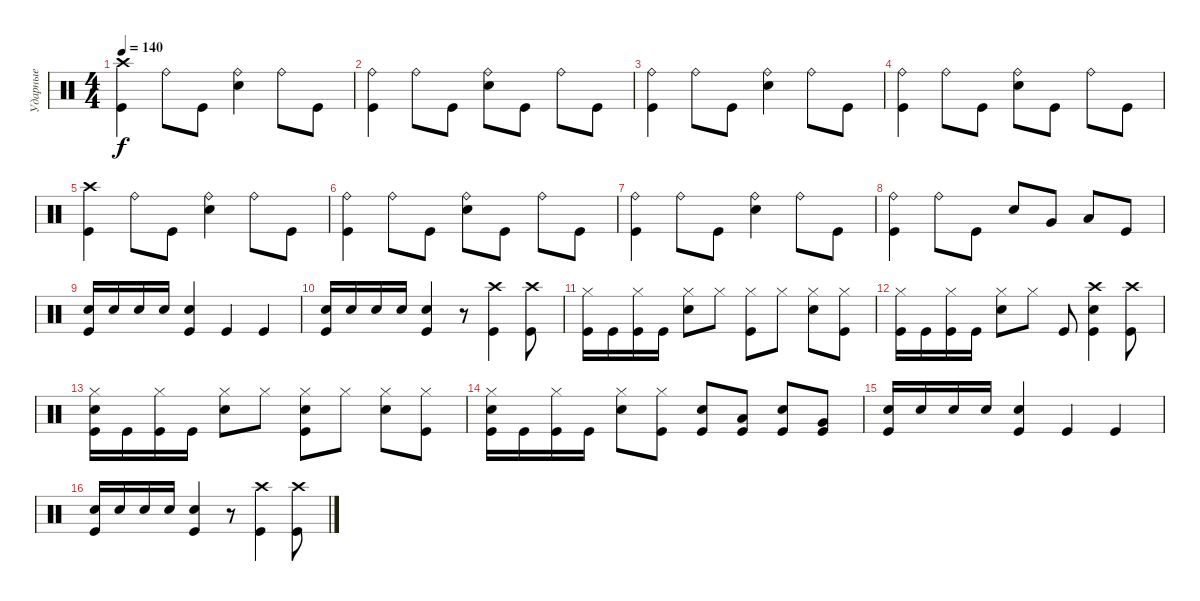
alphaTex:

\track ("Ударные" "Ударные") {instrument percussion}
\staff {score}
\articulation defaults
\ts (4 4)
\tempo 140
\clef neutral
\ks c
("Crash high (hit)" "Kick (hit)").4{dy f} "Ride (bell)".8 "Kick (hit)".8 ("Ride (bell)" "Electric Snare (hit)").4 "Ride (bell)".8 "Kick (hit)".8 |
("Ride (bell)" "Kick (hit)").4 "Ride (bell)".8 "Kick (hit)".8 ("Ride (bell)" "Electric Snare (hit)").8 "Kick (hit)".8 "Ride (bell)".8 "Kick (hit)".8 |
("Ride (bell)" "Kick (hit)").4 "Ride (bell)".8 "Kick (hit)".8 ("Ride (bell)" "Electric Snare (hit)").4 "Ride (bell)".8 "Kick (hit)".8 |
("Ride (bell)" "Kick (hit)").4 "Ride (bell)".8 "Kick (hit)".8 ("Ride (bell)" "Electric Snare (hit)").8 "Kick (hit)".8 "Ride (bell)".8 "Kick (hit)".8 |
("Crash high (hit)" "Kick (hit)").4 "Ride (bell)".8 "Kick (hit)".8 ("Ride (bell)" "Electric Snare (hit)").4 "Ride (bell)".8 "Kick (hit)".8 |
("Ride (bell)" "Kick (hit)").4 "Ride (bell)".8 "Kick (hit)".8 ("Ride (bell)" "Electric Snare (hit)").8 "Kick (hit)".8 "Ride (bell)".8 "Kick (hit)".8 |
("Ride (bell)" "Kick (hit)").4 "Ride (bell)".8 "Kick (hit)".8 ("Ride (bell)" "Electric Snare (hit)").4 "Ride (bell)".8 "Kick (hit)".8 |
("Ride (bell)" "Kick (hit)").4 "Ride (bell)".8 "Kick (hit)".8 "Electric Snare (hit)".8 "Very Low Tom (hit)".8 "Low Tom (hit)".8 "Kick (hit)".8 |
("Electric Snare (hit)" "Kick (hit)").16 "Electric Snare (hit)".16 "Electric Snare (hit)".16 "Electric Snare (hit)".16 ("Electric Snare (hit)" "Kick (hit)").4 "Kick (hit)".4 "Kick (hit)".4 |
("Electric Snare (hit)" "Kick (hit)").16 "Electric Snare (hit)".16 "Electric Snare (hit)".16 "Electric Snare (hit)".16 ("Electric Snare (hit)" "Kick (hit)").4 r.8 ("Crash high (hit)" "Kick (hit)").4 ("Crash high (hit)" "Kick (hit)").8 |
("Hi-Hat (closed)" "Kick (hit)").16 "Kick (hit)".16 ("Hi-Hat (closed)" "Kick (hit)").16 "Kick (hit)".16 ("Hi-Hat (closed)" "Electric Snare (hit)").8 "Hi-Hat (closed)".8 ("Hi-Hat (closed)" "Kick (hit)").8 "Hi-Hat (closed)".8 ("Hi-Hat (closed)" "Electric Snare (hit)").8 ("Hi-Hat (closed)" "Kick (hit)").8 |
("Hi-Hat (closed)" "Kick (hit)").16 "Kick (hit)".16 ("Hi-Hat (closed)" "Kick (hit)").16 "Kick (hit)".16 ("Hi-Hat (closed)" "Electric Snare (hit)").8 "Hi-Hat (closed)".8 "Kick (hit)".8 ("Crash high (hit)" "Electric Snare (hit)" "Kick (hit)").4 ("Crash high (hit)" "Kick (hit)").8 |
("Hi-Hat (closed)" "Electric Snare (hit)" "Kick (hit)").16 "Kick (hit)".16 ("Hi-Hat (closed)" "Kick (hit)").16 "Kick (hit)".16 ("Hi-Hat (closed)" "Electric Snare (hit)").8 "Hi-Hat (closed)".8 ("Hi-Hat (closed)" "Electric Snare (hit)" "Kick (hit)").8 "Hi-Hat (closed)".8 ("Hi-Hat (closed)" "Electric Snare (hit)").8 ("Hi-Hat (closed)" "Kick (hit)").8 |
("Hi-Hat (closed)" "Electric Snare (hit)" "Kick (hit)").16 "Kick (hit)".16 ("Hi-Hat (closed)" "Kick (hit)").16 "Kick (hit)".16 ("Hi-Hat (closed)" "Electric Snare (hit)").8 ("Hi-Hat (closed)" "Kick (hit)").8 ("Electric Snare (hit)" "Kick (hit)").8 ("Low Tom (hit)" "Kick (hit)").8 ("Electric Snare (hit)" "Kick (hit)").8 ("Very Low Tom (hit)" "Kick (hit)").8 |
("Electric Snare (hit)" "Kick (hit)").16 "Electric Snare (hit)".16 "Electric Snare (hit)".16 "Electric Snare (hit)".16 ("Electric Snare (hit)" "Kick (hit)").4 "Kick (hit)".4 "Kick (hit)".4 |
("Electric Snare (hit)" "Kick (hit)").16 "Electric Snare (hit)".16 "Electric Snare (hit)".16 "Electric Snare (hit)".16 ("Electric Snare (hit)" "Kick (hit)").4 r.8 ("Crash high (hit)" "Kick (hit)").4 ("Crash high (hit)" "Kick (hit)").8
